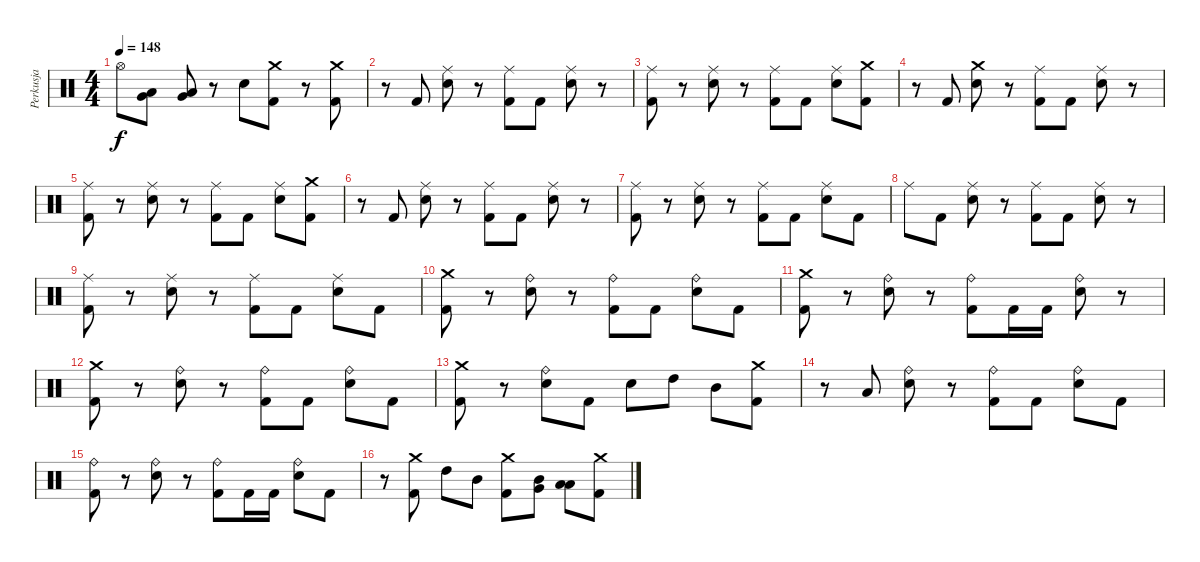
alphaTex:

\track ("Perkusja" "Perkusja") {instrument percussion}
\staff {score}
\articulation defaults
\ts (4 4)
\tempo 148
\clef neutral
\ks c "Hi-Hat (open)".8{dy f}
("Very Low Tom (hit)" "Low Floor Tom (hit)").8 ("Very Low Tom (hit)" "Low Floor Tom (hit)").8 r.8 "Electric Snare (hit)".8 ("Crash medium (hit)" "Kick (hit) 2").8 r.8 ("Crash medium (hit)" "Kick (hit) 2").8 |
r.8 "Kick (hit) 2".8 ("Ride (middle)" "Electric Snare (hit)").8 r.8 ("Ride (middle)" "Kick (hit) 2").8 "Kick (hit) 2".8 ("Ride (middle)" "Electric Snare (hit)").8 r.8 |
("Ride (middle)" "Kick (hit) 2").8 r.8 ("Ride (middle)" "Electric Snare (hit)").8 r.8 ("Ride (middle)" "Kick (hit) 2").8 "Kick (hit) 2".8 ("Ride (middle)" "Electric Snare (hit)").8 ("Crash medium (hit)" "Kick (hit) 2").8 |
r.8 "Kick (hit) 2".8 ("Crash medium (hit)" "Electric Snare (hit)").8 r.8 ("Ride (middle)" "Kick (hit) 2").8 "Kick (hit) 2".8 ("Ride (middle)" "Electric Snare (hit)").8 r.8 |
("Ride (middle)" "Kick (hit) 2").8 r.8 ("Ride (middle)" "Electric Snare (hit)").8 r.8 ("Ride (middle)" "Kick (hit) 2").8 "Kick (hit) 2".8 ("Ride (middle)" "Electric Snare (hit)").8 ("Crash medium (hit)" "Kick (hit) 2").8 |
r.8 "Kick (hit) 2".8 ("Ride (middle)" "Electric Snare (hit)").8 r.8 ("Ride (middle)" "Kick (hit) 2").8 "Kick (hit) 2".8 ("Ride (middle)" "Electric Snare (hit)").8 r.8 |
("Ride (middle)" "Kick (hit) 2").8 r.8 ("Ride (middle)" "Electric Snare (hit)").8 r.8 ("Ride (middle)" "Kick (hit) 2").8 "Kick (hit) 2".8 ("Ride (middle)" "Electric Snare (hit)").8 "Kick (hit) 2".8 |
"Ride (middle)".8 "Kick (hit) 2".8 ("Ride (middle)" "Electric Snare (hit)").8 r.8 ("Ride (middle)" "Kick (hit) 2").8 "Kick (hit) 2".8 ("Ride (middle)" "Electric Snare (hit)").8 r.8 |
("Ride (middle)" "Kick (hit) 2").8 r.8 ("Ride (middle)" "Electric Snare (hit)").8 r.8 ("Ride (middle)" "Kick (hit) 2").8 "Kick (hit) 2".8 ("Ride (middle)" "Electric Snare (hit)").8 "Kick (hit) 2".8 |
("Crash medium (hit)" "Kick (hit) 2").8 r.8 ("Ride (bell)" "Electric Snare (hit)").8 r.8 ("Ride (bell)" "Kick (hit) 2").8 "Kick (hit) 2".8 ("Ride (bell)" "Electric Snare (hit)").8 "Kick (hit) 2".8 |
("Crash medium (hit)" "Kick (hit) 2").8 r.8 ("Ride (bell)" "Electric Snare (hit)").8 r.8 ("Ride (bell)" "Kick (hit) 2").8 "Kick (hit) 2".16 "Kick (hit) 2".16 ("Ride (bell)" "Electric Snare (hit)").8 r.8 |
("Crash medium (hit)" "Kick (hit) 2").8 r.8 ("Ride (bell)" "Electric Snare (hit)").8 r.8 ("Ride (bell)" "Kick (hit) 2").8 "Kick (hit) 2".8 ("Ride (bell)" "Electric Snare (hit)").8 "Kick (hit) 2".8 |
("Crash medium (hit)" "Kick (hit) 2").8 r.8 ("Ride (bell)" "Electric Snare (hit)").8 "Kick (hit) 2".8 "Electric Snare (hit)".8 "High Tom (hit)".8 "Mid Tom (hit)".8 ("Crash medium (hit)" "Kick (hit) 2").8 |
r.8 "Low Tom (hit)".8 ("Ride (bell)" "Electric Snare (hit)").8 r.8 ("Ride (bell)" "Kick (hit) 2").8 "Kick (hit) 2".8 ("Ride (bell)" "Electric Snare (hit)").8 "Kick (hit) 2".8 |
("Ride (bell)" "Kick (hit) 2").8 r.8 ("Ride (bell)" "Electric Snare (hit)").8 r.8 ("Ride (bell)" "Kick (hit) 2").8 "Kick (hit) 2".16 "Kick (hit) 2".16 ("Ride (bell)" "Electric Snare (hit)").8 "Kick (hit) 2".8 |
r.8 ("Crash medium (hit)" "Kick (hit) 2").8 "High Tom (hit)".8 "Mid Tom (hit)".8 ("Crash medium (hit)" "Kick (hit) 2").8 ("Mid Tom (hit)" "Very Low Tom (hit)").8 ("Low Tom (hit)" "Low Floor Tom (hit)").8 ("Crash medium (hit)" "Kick (hit) 2").8
